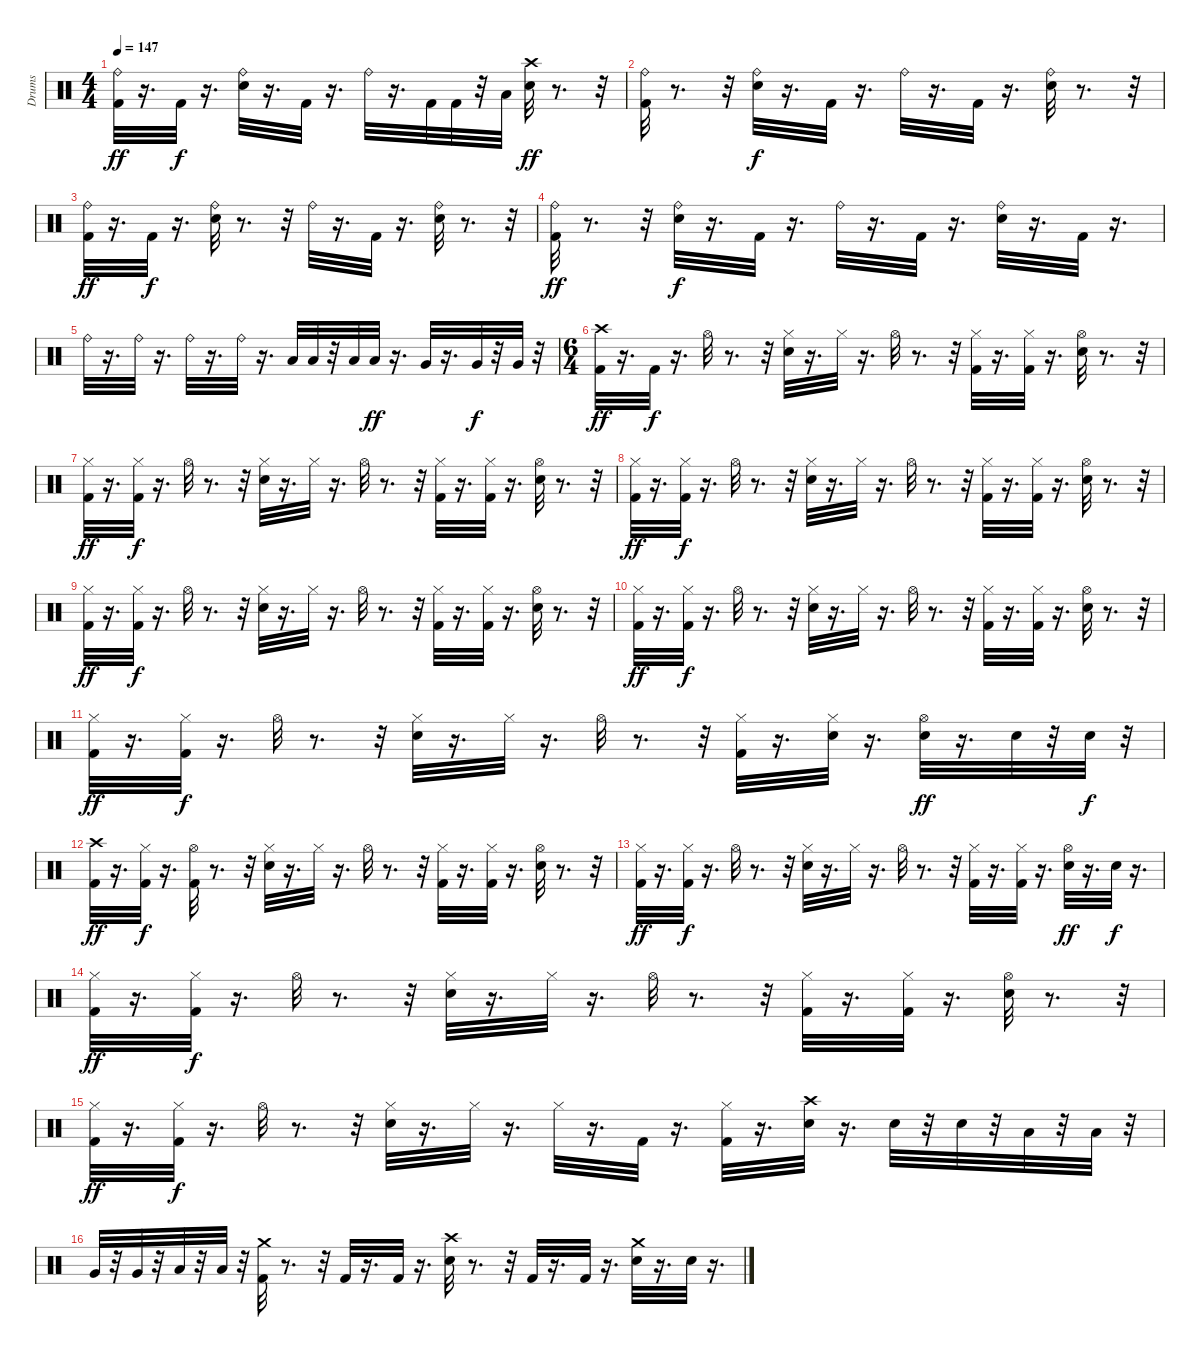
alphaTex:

\track ("Drums" "Drums") {instrument percussion}
\staff {score}
\articulation defaults
\ts (4 4)
\tempo 147
\clef neutral
\ks c
("Kick (hit) 2" "Ride (bell)").32{dy ff} r.16{d} "Kick (hit) 2".32{dy f} r.16{d} ("Ride (bell)" "Snare (hit) 2").32 r.16{d} "Kick (hit) 2".32 r.16{d} "Ride (bell)".32 r.16{d} "Kick (hit) 2".32 "Kick (hit) 2".32 r.32 "Low Floor Tom (hit)".32 ("Snare (hit) 2" "Crash high (hit)").32{dy ff} r.8{d} r.32 |
("Ride (bell)" "Kick (hit) 2").32 r.8{d} r.32 ("Snare (hit) 2" "Ride (bell)").32{dy f} r.16{d} "Kick (hit) 2".32 r.16{d} "Ride (bell)".32 r.16{d} "Kick (hit) 2".32 r.16{d} ("Snare (hit) 2" "Ride (bell)").32 r.8{d} r.32 |
("Kick (hit) 2" "Ride (bell)").32{dy ff} r.16{d} "Kick (hit) 2".32{dy f} r.16{d} ("Ride (bell)" "Snare (hit) 2").32 r.8{d} r.32 "Ride (bell)".32 r.16{d} "Kick (hit) 2".32 r.16{d} ("Ride (bell)" "Snare (hit) 2").32 r.8{d} r.32 |
("Ride (bell)" "Kick (hit) 2").32{dy ff} r.8{d} r.32 ("Ride (bell)" "Snare (hit) 2").32{dy f} r.16{d} "Kick (hit) 2".32 r.16{d} "Ride (bell)".32 r.16{d} "Kick (hit) 2".32 r.16{d} ("Ride (bell)" "Snare (hit) 2").32 r.16{d} "Kick (hit) 2".32 r.16{d} |
"Ride (bell)".32 r.16{d} "Ride (bell)".32 r.16{d} "Ride (bell)".32 r.16{d} "Ride (bell)".32 r.16{d} "Low Tom (hit)".32 "Low Tom (hit)".32 r.32 "Low Tom (hit)".32 "Low Tom (hit)".32{dy ff} r.16{d} "Very Low Tom (hit)".32 r.16{d} "Very Low Tom (hit)".32{dy f} r.32 "Very Low Tom (hit)".32 r.32 |
\ts (6 4)
("Crash high (hit)" "Kick (hit) 2").32{dy ff} r.16{d} "Kick (hit) 2".32{dy f} r.16{d} "Hi-Hat (open)".32 r.8{d} r.32 ("Snare (hit) 2" "Hi-Hat (closed)").32 r.16{d} "Hi-Hat (closed)".32 r.16{d} "Hi-Hat (open)".32 r.8{d} r.32 ("Hi-Hat (closed)" "Kick (hit) 2").32 r.16{d} ("Hi-Hat (closed)" "Kick (hit) 2").32 r.16{d} ("Hi-Hat (open)" "Snare (hit) 2").32 r.8{d} r.32 |
("Hi-Hat (closed)" "Kick (hit) 2").32{dy ff} r.16{d} ("Hi-Hat (closed)" "Kick (hit) 2").32{dy f} r.16{d} "Hi-Hat (open)".32 r.8{d} r.32 ("Snare (hit) 2" "Hi-Hat (closed)").32 r.16{d} "Hi-Hat (closed)".32 r.16{d} "Hi-Hat (open)".32 r.8{d} r.32 ("Hi-Hat (closed)" "Kick (hit) 2").32 r.16{d} ("Hi-Hat (closed)" "Kick (hit) 2").32 r.16{d} ("Hi-Hat (open)" "Snare (hit) 2").32 r.8{d} r.32 |
("Hi-Hat (closed)" "Kick (hit) 2").32{dy ff} r.16{d} ("Hi-Hat (closed)" "Kick (hit) 2").32{dy f} r.16{d} "Hi-Hat (open)".32 r.8{d} r.32 ("Snare (hit) 2" "Hi-Hat (closed)").32 r.16{d} "Hi-Hat (closed)".32 r.16{d} "Hi-Hat (open)".32 r.8{d} r.32 ("Hi-Hat (closed)" "Kick (hit) 2").32 r.16{d} ("Hi-Hat (closed)" "Kick (hit) 2").32 r.16{d} ("Hi-Hat (open)" "Snare (hit) 2").32 r.8{d} r.32 |
("Hi-Hat (closed)" "Kick (hit) 2").32{dy ff} r.16{d} ("Hi-Hat (closed)" "Kick (hit) 2").32{dy f} r.16{d} "Hi-Hat (open)".32 r.8{d} r.32 ("Snare (hit) 2" "Hi-Hat (closed)").32 r.16{d} "Hi-Hat (closed)".32 r.16{d} "Hi-Hat (open)".32 r.8{d} r.32 ("Hi-Hat (closed)" "Kick (hit) 2").32 r.16{d} ("Hi-Hat (closed)" "Kick (hit) 2").32 r.16{d} ("Hi-Hat (open)" "Snare (hit) 2").32 r.8{d} r.32 |
("Hi-Hat (closed)" "Kick (hit) 2").32{dy ff} r.16{d} ("Hi-Hat (closed)" "Kick (hit) 2").32{dy f} r.16{d} "Hi-Hat (open)".32 r.8{d} r.32 ("Snare (hit) 2" "Hi-Hat (closed)").32 r.16{d} "Hi-Hat (closed)".32 r.16{d} "Hi-Hat (open)".32 r.8{d} r.32 ("Hi-Hat (closed)" "Kick (hit) 2").32 r.16{d} ("Hi-Hat (closed)" "Kick (hit) 2").32 r.16{d} ("Hi-Hat (open)" "Snare (hit) 2").32 r.8{d} r.32 |
("Hi-Hat (closed)" "Kick (hit) 2").32{dy ff} r.16{d} ("Hi-Hat (closed)" "Kick (hit) 2").32{dy f} r.16{d} "Hi-Hat (open)".32 r.8{d} r.32 ("Snare (hit) 2" "Hi-Hat (closed)").32 r.16{d} "Hi-Hat (closed)".32 r.16{d} "Hi-Hat (open)".32 r.8{d} r.32 ("Hi-Hat (closed)" "Kick (hit) 2").32 r.16{d} ("Snare (hit) 2" "Hi-Hat (closed)").32 r.16{d} ("Hi-Hat (open)" "Snare (hit) 2").32{dy ff} r.16{d} "Snare (hit) 2".32 r.32 "Snare (hit) 2".32{dy f} r.32 |
("Crash high (hit)" "Kick (hit) 2").32{dy ff} r.16{d} ("Hi-Hat (closed)" "Kick (hit) 2").32{dy f} r.16{d} ("Hi-Hat (open)" "Kick (hit) 2").32 r.8{d} r.32 ("Snare (hit) 2" "Hi-Hat (closed)").32 r.16{d} "Hi-Hat (closed)".32 r.16{d} "Hi-Hat (open)".32 r.8{d} r.32 ("Kick (hit) 2" "Hi-Hat (closed)").32 r.16{d} ("Kick (hit) 2" "Hi-Hat (closed)").32 r.16{d} ("Snare (hit) 2" "Hi-Hat (open)").32 r.8{d} r.32 |
("Hi-Hat (closed)" "Kick (hit) 2").32{dy ff} r.16{d} ("Hi-Hat (closed)" "Kick (hit) 2").32{dy f} r.16{d} "Hi-Hat (open)".32 r.8{d} r.32 ("Snare (hit) 2" "Hi-Hat (closed)").32 r.16{d} "Hi-Hat (closed)".32 r.16{d} "Hi-Hat (open)".32 r.8{d} r.32 ("Kick (hit) 2" "Hi-Hat (closed)").32 r.16{d} ("Kick (hit) 2" "Hi-Hat (closed)").32 r.16{d} ("Snare (hit) 2" "Hi-Hat (open)").32{dy ff} r.16{d} "Snare (hit) 2".32{dy f} r.16{d} |
("Hi-Hat (closed)" "Kick (hit) 2").32{dy ff} r.16{d} ("Hi-Hat (closed)" "Kick (hit) 2").32{dy f} r.16{d} "Hi-Hat (open)".32 r.8{d} r.32 ("Snare (hit) 2" "Hi-Hat (closed)").32 r.16{d} "Hi-Hat (closed)".32 r.16{d} "Hi-Hat (open)".32 r.8{d} r.32 ("Kick (hit) 2" "Hi-Hat (closed)").32 r.16{d} ("Kick (hit) 2" "Hi-Hat (closed)").32 r.16{d} ("Snare (hit) 2" "Hi-Hat (open)").32 r.8{d} r.32 |
("Hi-Hat (closed)" "Kick (hit) 2").32{dy ff} r.16{d} ("Hi-Hat (closed)" "Kick (hit) 2").32{dy f} r.16{d} "Hi-Hat (open)".32 r.8{d} r.32 ("Snare (hit) 2" "Hi-Hat (closed)").32 r.16{d} "Hi-Hat (closed)".32 r.16{d} "Hi-Hat (closed)".32 r.16{d} "Kick (hit) 2".32 r.16{d} ("Kick (hit) 2" "Hi-Hat (closed)").32 r.16{d} ("Crash high (hit)" "Snare (hit) 2").32 r.16{d} "Snare (hit) 2".32 r.32 "Snare (hit) 2".32 r.32 "Low Tom (hit)".32 r.32 "Low Tom (hit)".32 r.32 |
"Very Low Tom (hit)".32 r.32 "Very Low Tom (hit)".32 r.32 "Low Floor Tom (hit)".32 r.32 "Low Floor Tom (hit)".32 r.32 ("Crash medium (hit)" "Kick (hit) 2").32 r.8{d} r.32 "Kick (hit) 2".32 r.16{d} "Kick (hit) 2".32 r.16{d} ("Crash high (hit)" "Snare (hit) 2").32 r.8{d} r.32 "Kick (hit) 2".32 r.16{d} "Kick (hit) 2".32 r.16{d} ("Crash medium (hit)" "Snare (hit) 2").32 r.16{d} "Snare (hit) 2".32 r.16{d}
